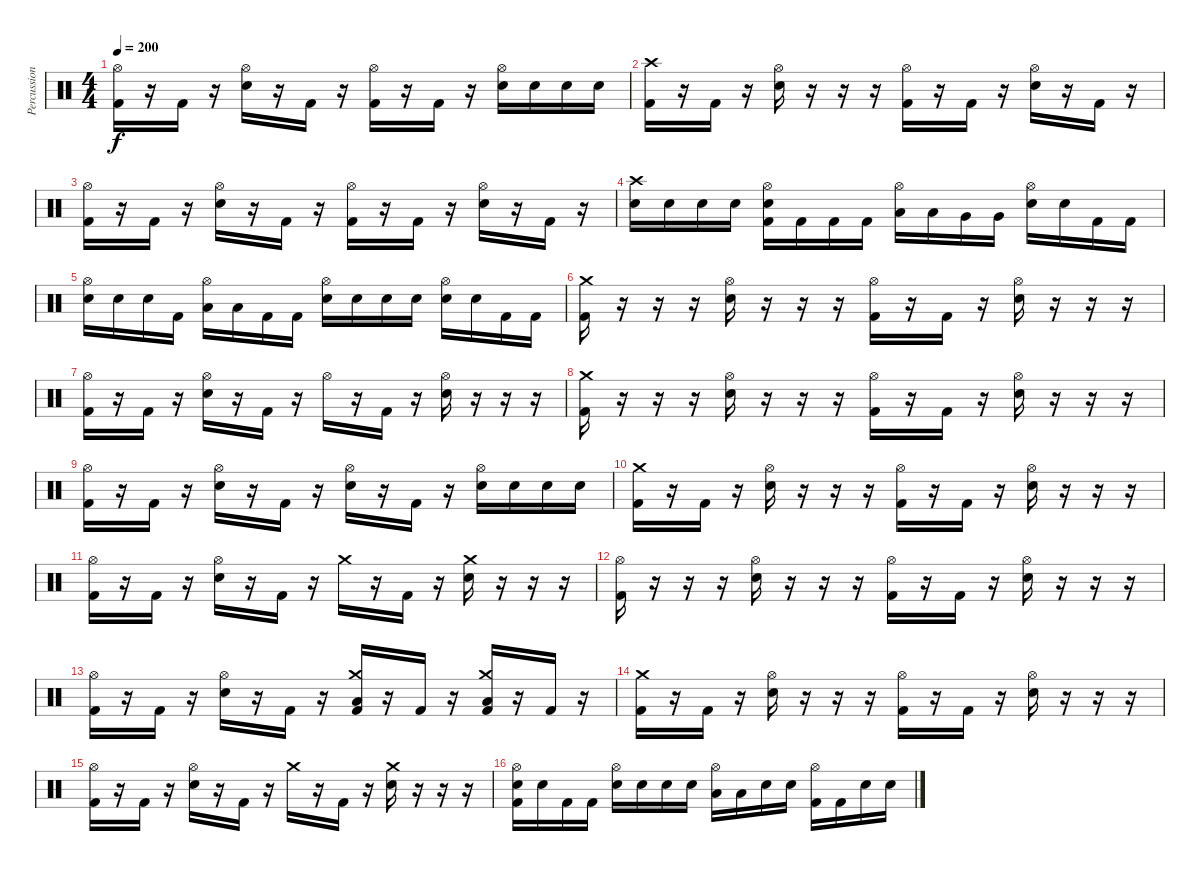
\track ("Percussion" "Percussion") {instrument percussion}
\staff {score}
\articulation defaults
\ts (4 4)
\tempo 200
\clef neutral
\ks c
("Hi-Hat (open)" "Kick (hit) 2").16{dy f} r.16 "Kick (hit) 2".16 r.16 ("Hi-Hat (open)" "Snare (hit) 2").16 r.16 "Kick (hit) 2".16 r.16 ("Hi-Hat (open)" "Kick (hit) 2").16 r.16 "Kick (hit) 2".16 r.16 ("Hi-Hat (open)" "Snare (hit) 2").16 "Snare (hit) 2".16 "Snare (hit) 2".16 "Snare (hit) 2".16 |
("Crash high (hit)" "Kick (hit) 2").16 r.16 "Kick (hit) 2".16 r.16 ("Hi-Hat (open)" "Snare (hit) 2").16 r.16 r.16 r.16 ("Hi-Hat (open)" "Kick (hit) 2").16 r.16 "Kick (hit) 2".16 r.16 ("Hi-Hat (open)" "Snare (hit) 2").16 r.16 "Kick (hit) 2".16 r.16 |
("Hi-Hat (open)" "Kick (hit) 2").16 r.16 "Kick (hit) 2".16 r.16 ("Hi-Hat (open)" "Snare (hit) 2").16 r.16 "Kick (hit) 2".16 r.16 ("Hi-Hat (open)" "Kick (hit) 2").16 r.16 "Kick (hit) 2".16 r.16 ("Hi-Hat (open)" "Snare (hit) 2").16 r.16 "Kick (hit) 2".16 r.16 |
("Crash high (hit)" "Snare (hit) 2").16 "Snare (hit) 2".16 "Snare (hit) 2".16 "Snare (hit) 2".16 ("Hi-Hat (open)" "Snare (hit) 2" "Kick (hit) 2").16 "Kick (hit) 2".16 "Kick (hit) 2".16 "Kick (hit) 2".16 ("Hi-Hat (open)" "Low Tom (hit)").16 "Low Tom (hit)".16 "Very Low Tom (hit)".16 "Very Low Tom (hit)".16 ("Hi-Hat (open)" "Snare (hit) 2").16 "Snare (hit) 2".16 "Kick (hit) 2".16 "Kick (hit) 2".16 |
("Hi-Hat (open)" "Snare (hit) 2").16 "Snare (hit) 2".16 "Snare (hit) 2".16 "Kick (hit) 2".16 ("Hi-Hat (open)" "Low Tom (hit)").16 "Low Tom (hit)".16 "Kick (hit) 2".16 "Kick (hit) 2".16 ("Hi-Hat (open)" "Snare (hit) 2").16 "Snare (hit) 2".16 "Snare (hit) 2".16 "Snare (hit) 2".16 ("Hi-Hat (open)" "Snare (hit) 2").16 "Snare (hit) 2".16 "Kick (hit) 2".16 "Kick (hit) 2".16 |
("Crash medium (hit)" "Kick (hit) 2").16 r.16 r.16 r.16 ("Hi-Hat (open)" "Snare (hit) 2").16 r.16 r.16 r.16 ("Hi-Hat (open)" "Kick (hit) 2").16 r.16 "Kick (hit) 2".16 r.16 ("Hi-Hat (open)" "Snare (hit) 2").16 r.16 r.16 r.16 |
("Hi-Hat (open)" "Kick (hit) 2").16 r.16 "Kick (hit) 2".16 r.16 ("Hi-Hat (open)" "Snare (hit) 2").16 r.16 "Kick (hit) 2".16 r.16 "Hi-Hat (open)".16 r.16 "Kick (hit) 2".16 r.16 ("Hi-Hat (open)" "Snare (hit) 2").16 r.16 r.16 r.16 |
("Crash medium (hit)" "Kick (hit) 2").16 r.16 r.16 r.16 ("Hi-Hat (open)" "Snare (hit) 2").16 r.16 r.16 r.16 ("Hi-Hat (open)" "Kick (hit) 2").16 r.16 "Kick (hit) 2".16 r.16 ("Hi-Hat (open)" "Snare (hit) 2").16 r.16 r.16 r.16 |
("Hi-Hat (open)" "Kick (hit) 2").16 r.16 "Kick (hit) 2".16 r.16 ("Hi-Hat (open)" "Snare (hit) 2").16 r.16 "Kick (hit) 2".16 r.16 ("Hi-Hat (open)" "Snare (hit) 2").16 r.16 "Kick (hit) 2".16 r.16 ("Hi-Hat (open)" "Snare (hit) 2").16 "Snare (hit) 2".16 "Snare (hit) 2".16 "Snare (hit) 2".16 |
("Crash medium (hit)" "Kick (hit) 2").16 r.16 "Kick (hit) 2".16 r.16 ("Hi-Hat (open)" "Snare (hit) 2").16 r.16 r.16 r.16 ("Hi-Hat (open)" "Kick (hit) 2").16 r.16 "Kick (hit) 2".16 r.16 ("Hi-Hat (open)" "Snare (hit) 2").16 r.16 r.16 r.16 |
("Hi-Hat (open)" "Kick (hit) 2").16 r.16 "Kick (hit) 2".16 r.16 ("Hi-Hat (open)" "Snare (hit) 2").16 r.16 "Kick (hit) 2".16 r.16 "Crash medium (hit)".16 r.16 "Kick (hit) 2".16 r.16 ("Crash medium (hit)" "Snare (hit) 2").16 r.16 r.16 r.16 |
("Hi-Hat (open)" "Kick (hit) 2").16 r.16 r.16 r.16 ("Hi-Hat (open)" "Snare (hit) 2").16 r.16 r.16 r.16 ("Hi-Hat (open)" "Kick (hit) 2").16 r.16 "Kick (hit) 2".16 r.16 ("Hi-Hat (open)" "Snare (hit) 2").16 r.16 r.16 r.16 |
("Hi-Hat (open)" "Kick (hit) 2").16 r.16 "Kick (hit) 2".16 r.16 ("Hi-Hat (open)" "Snare (hit) 2").16 r.16 "Kick (hit) 2".16 r.16 ("Crash medium (hit)" "Low Floor Tom (hit)" "Kick (hit) 2").16 r.16 "Kick (hit) 2".16 r.16 ("Crash medium (hit)" "Low Floor Tom (hit)" "Kick (hit) 2").16 r.16 "Kick (hit) 2".16 r.16 |
("Crash medium (hit)" "Kick (hit) 2").16 r.16 "Kick (hit) 2".16 r.16 ("Hi-Hat (open)" "Snare (hit) 2").16 r.16 r.16 r.16 ("Hi-Hat (open)" "Kick (hit) 2").16 r.16 "Kick (hit) 2".16 r.16 ("Hi-Hat (open)" "Snare (hit) 2").16 r.16 r.16 r.16 |
("Hi-Hat (open)" "Kick (hit) 2").16 r.16 "Kick (hit) 2".16 r.16 ("Hi-Hat (open)" "Snare (hit) 2").16 r.16 "Kick (hit) 2".16 r.16 "Crash medium (hit)".16 r.16 "Kick (hit) 2".16 r.16 ("Crash medium (hit)" "Snare (hit) 2").16 r.16 r.16 r.16 |
("Hi-Hat (open)" "Snare (hit) 2" "Kick (hit) 2").16 "Snare (hit) 2".16 "Kick (hit) 2".16 "Kick (hit) 2".16 ("Hi-Hat (open)" "Snare (hit) 2").16 "Snare (hit) 2".16 "Snare (hit) 2".16 "Snare (hit) 2".16 ("Hi-Hat (open)" "Low Tom (hit)").16 "Low Tom (hit)".16 "Snare (hit) 2".16 "Snare (hit) 2".16 ("Hi-Hat (open)" "Kick (hit) 2").16 "Kick (hit) 2".16 "Snare (hit) 2".16 "Snare (hit) 2".16
